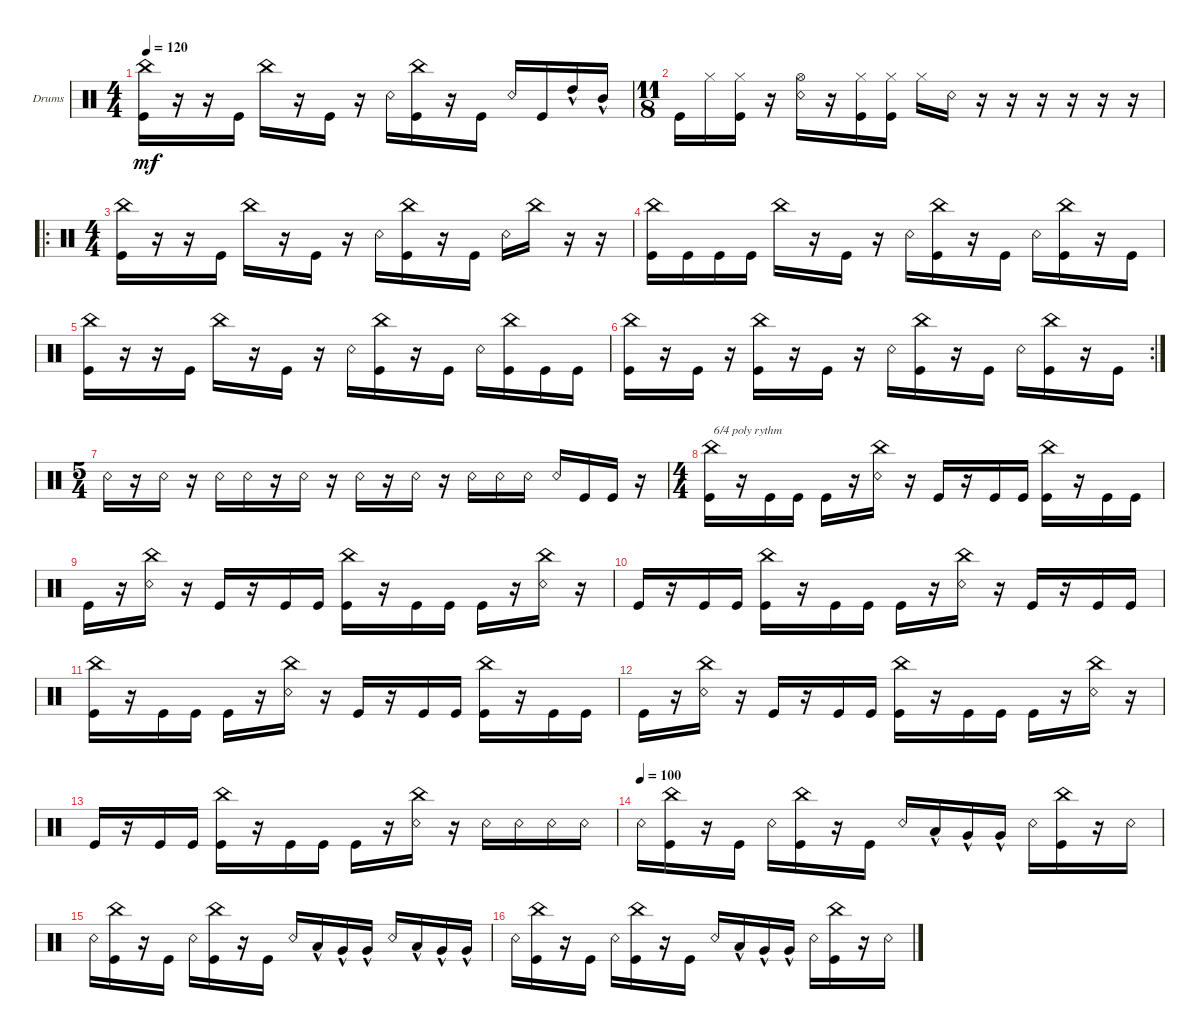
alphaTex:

\defaultSystemsLayout 4
\bracketExtendMode groupsimilarinstruments
\firstSystemTrackNameOrientation horizontal
\otherSystemsTrackNameOrientation horizontal
\track ("Drumkit" "Drums") {instrument percussion}
\staff {score}
\articulation defaults
\ts (4 4)
\tempo 120
\clef neutral
\ks c
("Kick (hit)" "China (hit)").16{dy mf} r.16 r.16 "Kick (hit)".16 "China (hit)".16 r.16 "Kick (hit)".16 r.16 "Snare (rim shot)".16 ("Kick (hit)" "China (hit)").16 r.16 "Kick (hit)".16 "Snare (rim shot)".16 "Kick (hit)".16 "High Tom (hit)"{hac}.16 "Mid Tom (hit)"{hac}.16 |
\ts (11 8)
"Kick (hit)".16 "Hi-Hat (closed)".16 ("Kick (hit)" "Hi-Hat (closed)").16 r.16 ("Snare (rim shot)" "Hi-Hat (open)").16 r.16 ("Kick (hit)" "Hi-Hat (closed)").16 ("Kick (hit)" "Hi-Hat (closed)").16 "Hi-Hat (closed)".16 "Snare (rim shot)".16 r.16 r.16 r.16 r.16 r.16 r.16 |
\ro
\ts (4 4)
("Kick (hit)" "China (hit)").16 r.16 r.16 "Kick (hit)".16 "China (hit)".16 r.16 "Kick (hit)".16 r.16 "Snare (rim shot)".16 ("Kick (hit)" "China (hit)").16 r.16 "Kick (hit)".16 "Snare (rim shot)".16 "China (hit)".16 r.16 r.16 |
("Kick (hit)" "China (hit)").16 "Kick (hit)".16 "Kick (hit)".16 "Kick (hit)".16 "China (hit)".16 r.16 "Kick (hit)".16 r.16 "Snare (rim shot)".16 ("Kick (hit)" "China (hit)").16 r.16 "Kick (hit)".16 "Snare (rim shot)".16 ("Kick (hit)" "China (hit)").16 r.16 "Kick (hit)".16 |
("Kick (hit)" "China (hit)").16 r.16 r.16 "Kick (hit)".16 "China (hit)".16 r.16 "Kick (hit)".16 r.16 "Snare (rim shot)".16 ("Kick (hit)" "China (hit)").16 r.16 "Kick (hit)".16 "Snare (rim shot)".16 ("Kick (hit)" "China (hit)").16 "Kick (hit)".16 "Kick (hit)".16 |
\rc 2
("Kick (hit)" "China (hit)").16 r.16 "Kick (hit)".16 r.16 ("China (hit)" "Kick (hit)").16 r.16 "Kick (hit)".16 r.16 "Snare (rim shot)".16 ("Kick (hit)" "China (hit)").16 r.16 "Kick (hit)".16 "Snare (rim shot)".16 ("Kick (hit)" "China (hit)").16 r.16 "Kick (hit)".16 |
\ts (5 4)
"Snare (rim shot)".16 r.16 "Snare (rim shot)".16 r.16 "Snare (rim shot)".16 "Snare (rim shot)".16 r.16 "Snare (rim shot)".16 r.16 "Snare (rim shot)".16 r.16 "Snare (rim shot)".16 r.16 "Snare (rim shot)".16 "Snare (rim shot)".16 "Snare (rim shot)".16 "Snare (rim shot)".16 "Kick (hit)".16 "Kick (hit)".16 r.16 |
\ts (4 4)
("Kick (hit)" "China (hit)").16{txt "6/4 poly rythm"} r.16 "Kick (hit)".16 "Kick (hit)".16 "Kick (hit)".16 r.16 ("Snare (rim shot)" "China (hit)").16 r.16 "Kick (hit)".16 r.16 "Kick (hit)".16 "Kick (hit)".16 ("Kick (hit)" "China (hit)").16 r.16 "Kick (hit)".16 "Kick (hit)".16 |
"Kick (hit)".16 r.16 ("Snare (rim shot)" "China (hit)").16 r.16 "Kick (hit)".16 r.16 "Kick (hit)".16 "Kick (hit)".16 ("Kick (hit)" "China (hit)").16 r.16 "Kick (hit)".16 "Kick (hit)".16 "Kick (hit)".16 r.16 ("Snare (rim shot)" "China (hit)").16 r.16 |
"Kick (hit)".16 r.16 "Kick (hit)".16 "Kick (hit)".16 ("Kick (hit)" "China (hit)").16 r.16 "Kick (hit)".16 "Kick (hit)".16 "Kick (hit)".16 r.16 ("Snare (rim shot)" "China (hit)").16 r.16 "Kick (hit)".16 r.16 "Kick (hit)".16 "Kick (hit)".16 |
("Kick (hit)" "China (hit)").16 r.16 "Kick (hit)".16 "Kick (hit)".16 "Kick (hit)".16 r.16 ("Snare (rim shot)" "China (hit)").16 r.16 "Kick (hit)".16 r.16 "Kick (hit)".16 "Kick (hit)".16 ("Kick (hit)" "China (hit)").16 r.16 "Kick (hit)".16 "Kick (hit)".16 |
"Kick (hit)".16 r.16 ("Snare (rim shot)" "China (hit)").16 r.16 "Kick (hit)".16 r.16 "Kick (hit)".16 "Kick (hit)".16 ("Kick (hit)" "China (hit)").16 r.16 "Kick (hit)".16 "Kick (hit)".16 "Kick (hit)".16 r.16 ("Snare (rim shot)" "China (hit)").16 r.16 |
"Kick (hit)".16 r.16 "Kick (hit)".16 "Kick (hit)".16 ("Kick (hit)" "China (hit)").16 r.16 "Kick (hit)".16 "Kick (hit)".16 "Kick (hit)".16 r.16 ("Snare (rim shot)" "China (hit)").16 r.16 "Snare (rim shot)".16 "Snare (rim shot)".16 "Snare (rim shot)".16 "Snare (rim shot)".16 |
\tempo (100)
"Snare (rim shot)".16 ("China (hit)" "Kick (hit)").16 r.16 "Kick (hit)".16 "Snare (rim shot)".16 ("China (hit)" "Kick (hit)").16 r.16 "Kick (hit)".16 "Snare (rim shot)".16 "Low Tom (hit)"{hac}.16 "Very Low Tom (hit)"{hac}.16 "Very Low Tom (hit)"{hac}.16 "Snare (rim shot)".16 ("China (hit)" "Kick (hit)").16 r.16 "Snare (rim shot)".16 |
"Snare (rim shot)".16 ("China (hit)" "Kick (hit)").16 r.16 "Kick (hit)".16 "Snare (rim shot)".16 ("China (hit)" "Kick (hit)").16 r.16 "Kick (hit)".16 "Snare (rim shot)".16 "Low Tom (hit)"{hac}.16 "Very Low Tom (hit)"{hac}.16 "Very Low Tom (hit)"{hac}.16 "Snare (rim shot)".16 "Low Tom (hit)"{hac}.16 "Very Low Tom (hit)"{hac}.16 "Very Low Tom (hit)"{hac}.16 |
"Snare (rim shot)".16 ("China (hit)" "Kick (hit)").16 r.16 "Kick (hit)".16 "Snare (rim shot)".16 ("China (hit)" "Kick (hit)").16 r.16 "Kick (hit)".16 "Snare (rim shot)".16 "Low Tom (hit)"{hac}.16 "Very Low Tom (hit)"{hac}.16 "Very Low Tom (hit)"{hac}.16 "Snare (rim shot)".16 ("China (hit)" "Kick (hit)").16 r.16 "Snare (rim shot)".16
